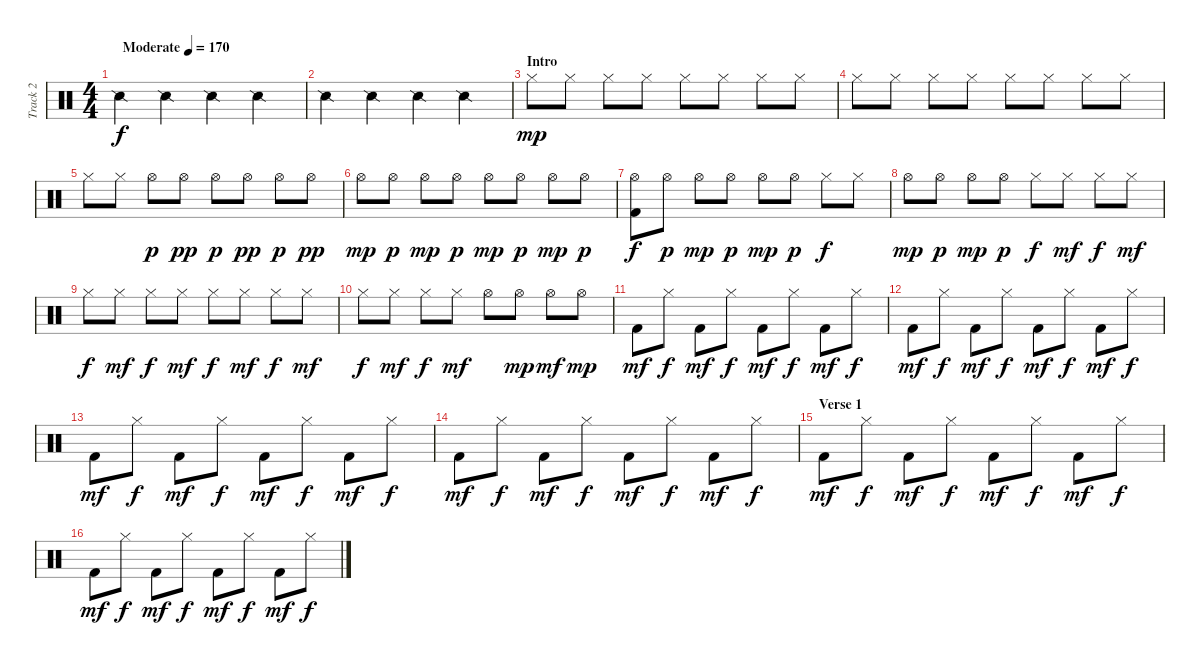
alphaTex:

\track ("Track 2" "Track 2") {instrument percussion}
\staff {score}
\articulation defaults
\ts (4 4)
\tempo (170 "Moderate")
\clef neutral
\ks c "Snare (side stick) 2".4{dy f} "Snare (side stick) 2".4 "Snare (side stick) 2".4 "Snare (side stick) 2".4
|
"Snare (side stick) 2".4 "Snare (side stick) 2".4 "Snare (side stick) 2".4 "Snare (side stick) 2".4 |
\section ("" "Intro")
"Hi-Hat (closed)".8{dy mp} "Hi-Hat (closed)".8 "Hi-Hat (closed)".8 "Hi-Hat (closed)".8 "Hi-Hat (closed)".8 "Hi-Hat (closed)".8 "Hi-Hat (closed)".8 "Hi-Hat (closed)".8 |
"Hi-Hat (closed)".8 "Hi-Hat (closed)".8 "Hi-Hat (closed)".8 "Hi-Hat (closed)".8 "Hi-Hat (closed)".8 "Hi-Hat (closed)".8 "Hi-Hat (closed)".8 "Hi-Hat (closed)".8 |
"Hi-Hat (closed)".8 "Hi-Hat (closed)".8 "Hi-Hat (open)".8{dy p} "Hi-Hat (open)".8{dy pp} "Hi-Hat (open)".8{dy p} "Hi-Hat (open)".8{dy pp} "Hi-Hat (open)".8{dy p} "Hi-Hat (open)".8{dy pp} |
"Hi-Hat (open)".8{dy mp} "Hi-Hat (open)".8{dy p} "Hi-Hat (open)".8{dy mp} "Hi-Hat (open)".8{dy p} "Hi-Hat (open)".8{dy mp} "Hi-Hat (open)".8{dy p} "Hi-Hat (open)".8{dy mp} "Hi-Hat (open)".8{dy p} |
("Hi-Hat (open)" "Kick (hit) 2").8{dy f} "Hi-Hat (open)".8{dy p} "Hi-Hat (open)".8{dy mp} "Hi-Hat (open)".8{dy p} "Hi-Hat (open)".8{dy mp} "Hi-Hat (open)".8{dy p} "Hi-Hat (closed)".8{dy f} "Hi-Hat (closed)".8 |
"Hi-Hat (open)".8{dy mp} "Hi-Hat (open)".8{dy p} "Hi-Hat (open)".8{dy mp} "Hi-Hat (open)".8{dy p} "Hi-Hat (closed)".8{dy f} "Hi-Hat (closed)".8{dy mf} "Hi-Hat (closed)".8{dy f} "Hi-Hat (closed)".8{dy mf} |
"Hi-Hat (closed)".8{dy f} "Hi-Hat (closed)".8{dy mf} "Hi-Hat (closed)".8{dy f} "Hi-Hat (closed)".8{dy mf} "Hi-Hat (closed)".8{dy f} "Hi-Hat (closed)".8{dy mf} "Hi-Hat (closed)".8{dy f} "Hi-Hat (closed)".8{dy mf} |
"Hi-Hat (closed)".8{dy f} "Hi-Hat (closed)".8{dy mf} "Hi-Hat (closed)".8{dy f} "Hi-Hat (closed)".8{dy mf} "Hi-Hat (open)".8 "Hi-Hat (open)".8{dy mp} "Hi-Hat (open)".8{dy mf} "Hi-Hat (open)".8{dy mp} |
"Kick (hit) 2".8{dy mf} "Hi-Hat (closed)".8{dy f} "Kick (hit) 2".8{dy mf} "Hi-Hat (closed)".8{dy f} "Kick (hit) 2".8{dy mf} "Hi-Hat (closed)".8{dy f} "Kick (hit) 2".8{dy mf} "Hi-Hat (closed)".8{dy f} |
"Kick (hit) 2".8{dy mf} "Hi-Hat (closed)".8{dy f} "Kick (hit) 2".8{dy mf} "Hi-Hat (closed)".8{dy f} "Kick (hit) 2".8{dy mf} "Hi-Hat (closed)".8{dy f} "Kick (hit) 2".8{dy mf} "Hi-Hat (closed)".8{dy f} |
"Kick (hit) 2".8{dy mf} "Hi-Hat (closed)".8{dy f} "Kick (hit) 2".8{dy mf} "Hi-Hat (closed)".8{dy f} "Kick (hit) 2".8{dy mf} "Hi-Hat (closed)".8{dy f} "Kick (hit) 2".8{dy mf} "Hi-Hat (closed)".8{dy f} |
"Kick (hit) 2".8{dy mf} "Hi-Hat (closed)".8{dy f} "Kick (hit) 2".8{dy mf} "Hi-Hat (closed)".8{dy f} "Kick (hit) 2".8{dy mf} "Hi-Hat (closed)".8{dy f} "Kick (hit) 2".8{dy mf} "Hi-Hat (closed)".8{dy f} |
\section ("" "Verse 1")
"Kick (hit) 2".8{dy mf} "Hi-Hat (closed)".8{dy f} "Kick (hit) 2".8{dy mf} "Hi-Hat (closed)".8{dy f} "Kick (hit) 2".8{dy mf} "Hi-Hat (closed)".8{dy f} "Kick (hit) 2".8{dy mf} "Hi-Hat (closed)".8{dy f} |
"Kick (hit) 2".8{dy mf} "Hi-Hat (closed)".8{dy f} "Kick (hit) 2".8{dy mf} "Hi-Hat (closed)".8{dy f} "Kick (hit) 2".8{dy mf} "Hi-Hat (closed)".8{dy f} "Kick (hit) 2".8{dy mf} "Hi-Hat (closed)".8{dy f}
